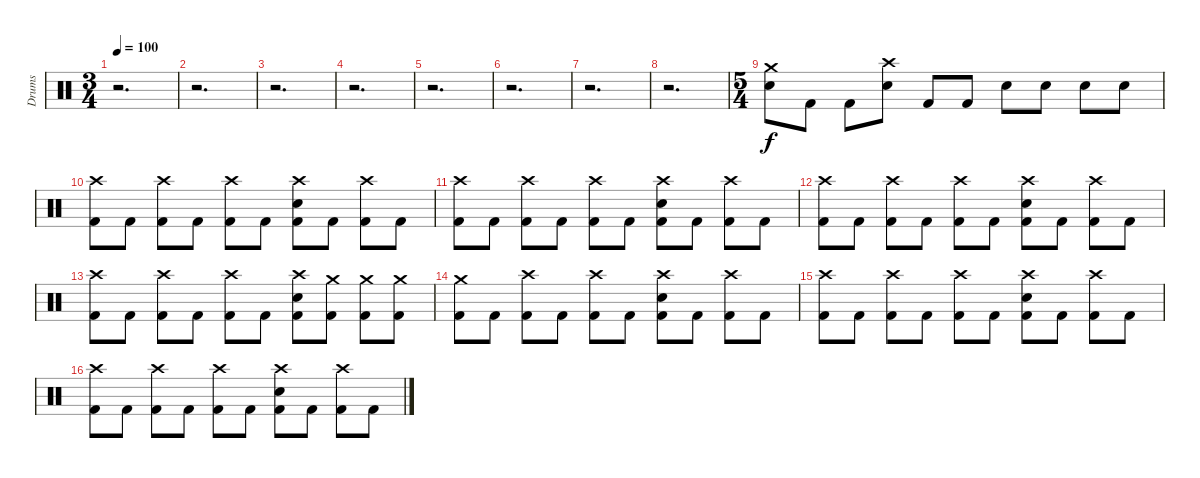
\track ("Drums" "Drums") {instrument percussion}
\staff {score}
\articulation defaults
\ts (3 4)
\tempo 100
\clef neutral
\ks c
r.2{d dy f} |
r.2{d} |
r.2{d} |
r.2{d} |
r.2{d} |
r.2{d} |
r.2{d} |
r.2{d} |
\ts (5 4)
("Crash medium (hit)" "Snare (hit) 2").8 "Kick (hit) 2".8 "Kick (hit) 2".8 ("Crash high (hit)" "Snare (hit) 2").8 "Kick (hit) 2".8 "Kick (hit) 2".8 "Snare (hit) 2".8 "Snare (hit) 2".8 "Snare (hit) 2".8 "Snare (hit) 2".8 |
("Crash high (hit)" "Kick (hit) 2").8 "Kick (hit) 2".8 ("Crash high (hit)" "Kick (hit) 2").8 "Kick (hit) 2".8 ("Crash high (hit)" "Kick (hit) 2").8 "Kick (hit) 2".8 ("Crash high (hit)" "Snare (hit) 2" "Kick (hit) 2").8 "Kick (hit) 2".8 ("Crash high (hit)" "Kick (hit) 2").8 "Kick (hit) 2".8 |
("Crash high (hit)" "Kick (hit) 2").8 "Kick (hit) 2".8 ("Crash high (hit)" "Kick (hit) 2").8 "Kick (hit) 2".8 ("Crash high (hit)" "Kick (hit) 2").8 "Kick (hit) 2".8 ("Crash high (hit)" "Snare (hit) 2" "Kick (hit) 2").8 "Kick (hit) 2".8 ("Crash high (hit)" "Kick (hit) 2").8 "Kick (hit) 2".8 |
("Crash high (hit)" "Kick (hit) 2").8 "Kick (hit) 2".8 ("Crash high (hit)" "Kick (hit) 2").8 "Kick (hit) 2".8 ("Crash high (hit)" "Kick (hit) 2").8 "Kick (hit) 2".8 ("Crash high (hit)" "Snare (hit) 2" "Kick (hit) 2").8 "Kick (hit) 2".8 ("Crash high (hit)" "Kick (hit) 2").8 "Kick (hit) 2".8 |
("Crash high (hit)" "Kick (hit) 2").8 "Kick (hit) 2".8 ("Crash high (hit)" "Kick (hit) 2").8 "Kick (hit) 2".8 ("Crash high (hit)" "Kick (hit) 2").8 "Kick (hit) 2".8 ("Crash high (hit)" "Snare (hit) 2" "Kick (hit) 2").8 ("Crash medium (hit)" "Kick (hit) 2").8 ("Crash medium (hit)" "Kick (hit) 2").8 ("Crash medium (hit)" "Kick (hit) 2").8 |
("Crash medium (hit)" "Kick (hit) 2").8 "Kick (hit) 2".8 ("Crash high (hit)" "Kick (hit) 2").8 "Kick (hit) 2".8 ("Crash high (hit)" "Kick (hit) 2").8 "Kick (hit) 2".8 ("Crash high (hit)" "Snare (hit) 2" "Kick (hit) 2").8 "Kick (hit) 2".8 ("Crash high (hit)" "Kick (hit) 2").8 "Kick (hit) 2".8 |
("Crash high (hit)" "Kick (hit) 2").8 "Kick (hit) 2".8 ("Crash high (hit)" "Kick (hit) 2").8 "Kick (hit) 2".8 ("Crash high (hit)" "Kick (hit) 2").8 "Kick (hit) 2".8 ("Crash high (hit)" "Snare (hit) 2" "Kick (hit) 2").8 "Kick (hit) 2".8 ("Crash high (hit)" "Kick (hit) 2").8 "Kick (hit) 2".8 |
("Crash high (hit)" "Kick (hit) 2").8 "Kick (hit) 2".8 ("Crash high (hit)" "Kick (hit) 2").8 "Kick (hit) 2".8 ("Crash high (hit)" "Kick (hit) 2").8 "Kick (hit) 2".8 ("Crash high (hit)" "Snare (hit) 2" "Kick (hit) 2").8 "Kick (hit) 2".8 ("Crash high (hit)" "Kick (hit) 2").8 "Kick (hit) 2".8
